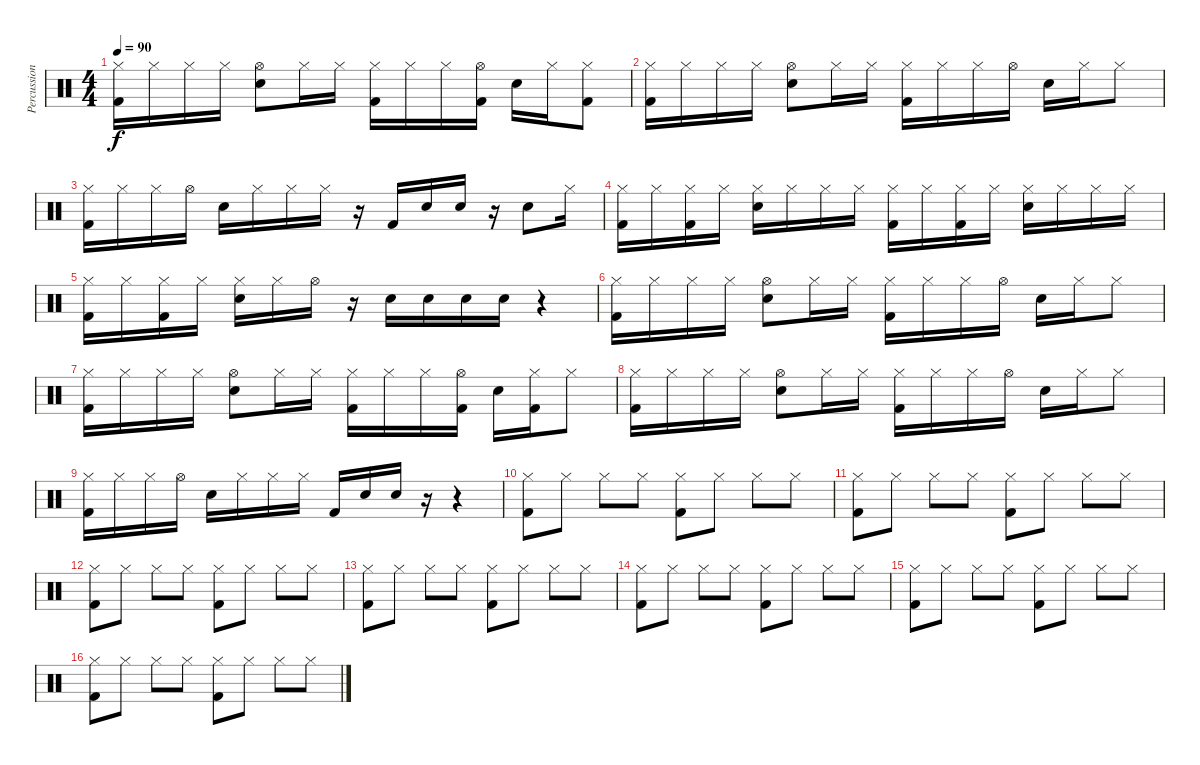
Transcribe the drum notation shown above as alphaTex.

\track ("Percussion" "Percussion") {instrument percussion}
\staff {score}
\articulation defaults
\ts (4 4)
\tempo 90
\clef neutral
\ks c
("Hi-Hat (closed)" "Kick (hit) 2").16{dy f} "Hi-Hat (closed)".16 "Hi-Hat (closed)".16 "Hi-Hat (closed)".16 ("Hi-Hat (open)" "Electric Snare (hit)").8 "Hi-Hat (closed)".16 "Hi-Hat (closed)".16 ("Hi-Hat (closed)" "Kick (hit) 2").16 "Hi-Hat (closed)".16 "Hi-Hat (closed)".16 ("Hi-Hat (open)" "Kick (hit) 2").16 "Electric Snare (hit)".16 "Hi-Hat (closed)".16 ("Hi-Hat (closed)" "Kick (hit) 2").8 |
("Hi-Hat (closed)" "Kick (hit) 2").16 "Hi-Hat (closed)".16 "Hi-Hat (closed)".16 "Hi-Hat (closed)".16 ("Hi-Hat (open)" "Electric Snare (hit)").8 "Hi-Hat (closed)".16 "Hi-Hat (closed)".16 ("Hi-Hat (closed)" "Kick (hit) 2").16 "Hi-Hat (closed)".16 "Hi-Hat (closed)".16 "Hi-Hat (open)".16 "Electric Snare (hit)".16 "Hi-Hat (closed)".16 "Hi-Hat (closed)".8 |
("Hi-Hat (closed)" "Kick (hit) 2").16 "Hi-Hat (closed)".16 "Hi-Hat (closed)".16 "Hi-Hat (open)".16 "Electric Snare (hit)".16 "Hi-Hat (closed)".16 "Hi-Hat (closed)".16 "Hi-Hat (closed)".16 r.16 "Kick (hit) 2".16 "Electric Snare (hit)".16 "Electric Snare (hit)".16 r.16 "Electric Snare (hit)".8 "Hi-Hat (closed)".16 |
("Hi-Hat (closed)" "Kick (hit) 2").16 "Hi-Hat (closed)".16 ("Hi-Hat (closed)" "Kick (hit) 2").16 "Hi-Hat (closed)".16 ("Hi-Hat (closed)" "Electric Snare (hit)").16 "Hi-Hat (closed)".16 "Hi-Hat (closed)".16 "Hi-Hat (closed)".16 ("Hi-Hat (closed)" "Kick (hit) 2").16 "Hi-Hat (closed)".16 ("Hi-Hat (closed)" "Kick (hit) 2").16 "Hi-Hat (closed)".16 ("Hi-Hat (closed)" "Electric Snare (hit)").16 "Hi-Hat (closed)".16 "Hi-Hat (closed)".16 "Hi-Hat (closed)".16 |
("Hi-Hat (closed)" "Kick (hit) 2").16 "Hi-Hat (closed)".16 ("Hi-Hat (closed)" "Kick (hit) 2").16 "Hi-Hat (closed)".16 ("Hi-Hat (closed)" "Electric Snare (hit)").16 "Hi-Hat (closed)".16 "Hi-Hat (open)".16 r.16 "Electric Snare (hit)".16 "Electric Snare (hit)".16 "Electric Snare (hit)".16 "Electric Snare (hit)".16 r.4 |
("Hi-Hat (closed)" "Kick (hit) 2").16 "Hi-Hat (closed)".16 "Hi-Hat (closed)".16 "Hi-Hat (closed)".16 ("Hi-Hat (open)" "Electric Snare (hit)").8 "Hi-Hat (closed)".16 "Hi-Hat (closed)".16 ("Hi-Hat (closed)" "Kick (hit) 2").16 "Hi-Hat (closed)".16 "Hi-Hat (closed)".16 "Hi-Hat (open)".16 "Electric Snare (hit)".16 "Hi-Hat (closed)".16 "Hi-Hat (closed)".8 |
("Hi-Hat (closed)" "Kick (hit) 2").16 "Hi-Hat (closed)".16 "Hi-Hat (closed)".16 "Hi-Hat (closed)".16 ("Hi-Hat (open)" "Electric Snare (hit)").8 "Hi-Hat (closed)".16 "Hi-Hat (closed)".16 ("Hi-Hat (closed)" "Kick (hit) 2").16 "Hi-Hat (closed)".16 "Hi-Hat (closed)".16 ("Hi-Hat (open)" "Kick (hit) 2").16 "Electric Snare (hit)".16 ("Hi-Hat (closed)" "Kick (hit) 2").16 "Hi-Hat (closed)".8 |
("Hi-Hat (closed)" "Kick (hit) 2").16 "Hi-Hat (closed)".16 "Hi-Hat (closed)".16 "Hi-Hat (closed)".16 ("Hi-Hat (open)" "Electric Snare (hit)").8 "Hi-Hat (closed)".16 "Hi-Hat (closed)".16 ("Hi-Hat (closed)" "Kick (hit) 2").16 "Hi-Hat (closed)".16 "Hi-Hat (closed)".16 "Hi-Hat (open)".16 "Electric Snare (hit)".16 "Hi-Hat (closed)".16 "Hi-Hat (closed)".8 |
("Hi-Hat (closed)" "Kick (hit) 2").16 "Hi-Hat (closed)".16 "Hi-Hat (closed)".16 "Hi-Hat (open)".16 "Electric Snare (hit)".16 "Hi-Hat (closed)".16 "Hi-Hat (closed)".16 "Hi-Hat (closed)".16 "Kick (hit) 2".16 "Electric Snare (hit)".16 "Electric Snare (hit)".16 r.16 r.4 |
("Hi-Hat (closed)" "Kick (hit) 2").8 "Hi-Hat (closed)".8 "Hi-Hat (closed)".8 "Hi-Hat (closed)".8 ("Hi-Hat (closed)" "Kick (hit) 2").8 "Hi-Hat (closed)".8 "Hi-Hat (closed)".8 "Hi-Hat (closed)".8 |
("Hi-Hat (closed)" "Kick (hit) 2").8 "Hi-Hat (closed)".8 "Hi-Hat (closed)".8 "Hi-Hat (closed)".8 ("Hi-Hat (closed)" "Kick (hit) 2").8 "Hi-Hat (closed)".8 "Hi-Hat (closed)".8 "Hi-Hat (closed)".8 |
("Hi-Hat (closed)" "Kick (hit) 2").8 "Hi-Hat (closed)".8 "Hi-Hat (closed)".8 "Hi-Hat (closed)".8 ("Hi-Hat (closed)" "Kick (hit) 2").8 "Hi-Hat (closed)".8 "Hi-Hat (closed)".8 "Hi-Hat (closed)".8 |
("Hi-Hat (closed)" "Kick (hit) 2").8 "Hi-Hat (closed)".8 "Hi-Hat (closed)".8 "Hi-Hat (closed)".8 ("Hi-Hat (closed)" "Kick (hit) 2").8 "Hi-Hat (closed)".8 "Hi-Hat (closed)".8 "Hi-Hat (closed)".8 |
("Hi-Hat (closed)" "Kick (hit) 2").8 "Hi-Hat (closed)".8 "Hi-Hat (closed)".8 "Hi-Hat (closed)".8 ("Hi-Hat (closed)" "Kick (hit) 2").8 "Hi-Hat (closed)".8 "Hi-Hat (closed)".8 "Hi-Hat (closed)".8 |
("Hi-Hat (closed)" "Kick (hit) 2").8 "Hi-Hat (closed)".8 "Hi-Hat (closed)".8 "Hi-Hat (closed)".8 ("Hi-Hat (closed)" "Kick (hit) 2").8 "Hi-Hat (closed)".8 "Hi-Hat (closed)".8 "Hi-Hat (closed)".8 |
("Hi-Hat (closed)" "Kick (hit) 2").8 "Hi-Hat (closed)".8 "Hi-Hat (closed)".8 "Hi-Hat (closed)".8 ("Hi-Hat (closed)" "Kick (hit) 2").8 "Hi-Hat (closed)".8 "Hi-Hat (closed)".8 "Hi-Hat (closed)".8
